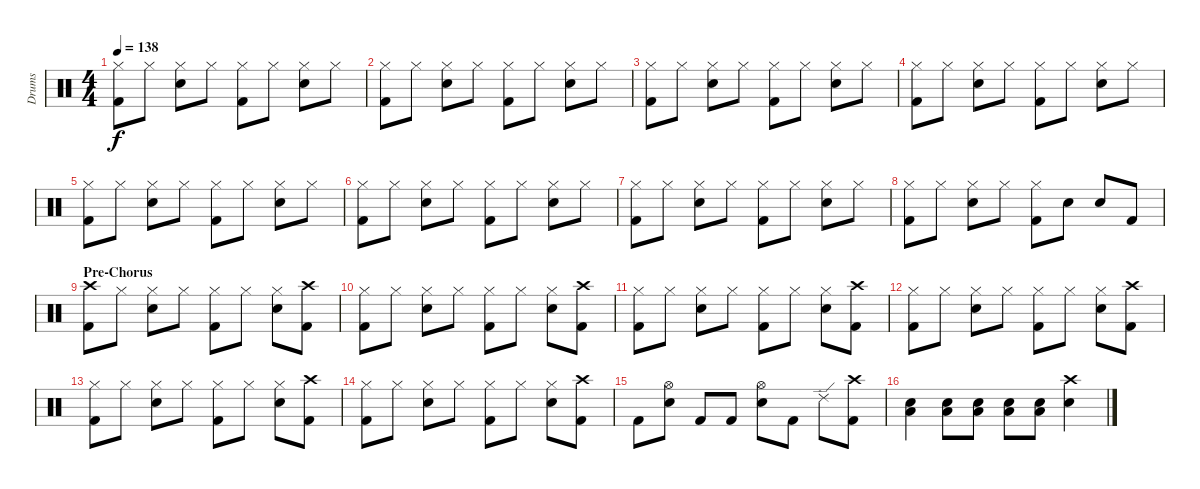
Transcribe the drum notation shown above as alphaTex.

\track ("Drums" "Drums") {instrument percussion}
\staff {score}
\articulation defaults
\ts (4 4)
\tempo 138
\clef neutral
\ks c
("Hi-Hat (closed)" "Kick (hit) 2").8{dy f} "Hi-Hat (closed)".8 ("Hi-Hat (closed)" "Snare (hit) 2").8 "Hi-Hat (closed)".8 ("Hi-Hat (closed)" "Kick (hit) 2").8 "Hi-Hat (closed)".8 ("Hi-Hat (closed)" "Snare (hit) 2").8 "Hi-Hat (closed)".8 |
("Hi-Hat (closed)" "Kick (hit) 2").8 "Hi-Hat (closed)".8 ("Hi-Hat (closed)" "Snare (hit) 2").8 "Hi-Hat (closed)".8 ("Hi-Hat (closed)" "Kick (hit) 2").8 "Hi-Hat (closed)".8 ("Hi-Hat (closed)" "Snare (hit) 2").8 "Hi-Hat (closed)".8 |
("Hi-Hat (closed)" "Kick (hit) 2").8 "Hi-Hat (closed)".8 ("Hi-Hat (closed)" "Snare (hit) 2").8 "Hi-Hat (closed)".8 ("Hi-Hat (closed)" "Kick (hit) 2").8 "Hi-Hat (closed)".8 ("Hi-Hat (closed)" "Snare (hit) 2").8 "Hi-Hat (closed)".8 |
("Hi-Hat (closed)" "Kick (hit) 2").8 "Hi-Hat (closed)".8 ("Hi-Hat (closed)" "Snare (hit) 2").8 "Hi-Hat (closed)".8 ("Hi-Hat (closed)" "Kick (hit) 2").8 "Hi-Hat (closed)".8 ("Hi-Hat (closed)" "Snare (hit) 2").8 "Hi-Hat (closed)".8 |
("Hi-Hat (closed)" "Kick (hit) 2").8 "Hi-Hat (closed)".8 ("Hi-Hat (closed)" "Snare (hit) 2").8 "Hi-Hat (closed)".8 ("Hi-Hat (closed)" "Kick (hit) 2").8 "Hi-Hat (closed)".8 ("Hi-Hat (closed)" "Snare (hit) 2").8 "Hi-Hat (closed)".8 |
("Hi-Hat (closed)" "Kick (hit) 2").8 "Hi-Hat (closed)".8 ("Hi-Hat (closed)" "Snare (hit) 2").8 "Hi-Hat (closed)".8 ("Hi-Hat (closed)" "Kick (hit) 2").8 "Hi-Hat (closed)".8 ("Hi-Hat (closed)" "Snare (hit) 2").8 "Hi-Hat (closed)".8 |
("Hi-Hat (closed)" "Kick (hit) 2").8 "Hi-Hat (closed)".8 ("Hi-Hat (closed)" "Snare (hit) 2").8 "Hi-Hat (closed)".8 ("Hi-Hat (closed)" "Kick (hit) 2").8 "Hi-Hat (closed)".8 ("Hi-Hat (closed)" "Snare (hit) 2").8 "Hi-Hat (closed)".8 |
("Hi-Hat (closed)" "Kick (hit) 2").8 "Hi-Hat (closed)".8 ("Hi-Hat (closed)" "Snare (hit) 2").8 "Hi-Hat (closed)".8 ("Hi-Hat (closed)" "Kick (hit) 2").8 "Snare (hit) 2".8 "Snare (hit) 2".8 "Kick (hit) 2".8 |
\section ("" "Pre-Chorus")
("Crash high (hit)" "Kick (hit) 2").8 "Hi-Hat (closed)".8 ("Hi-Hat (closed)" "Snare (hit) 2").8 "Hi-Hat (closed)".8 ("Hi-Hat (closed)" "Kick (hit) 2").8 "Hi-Hat (closed)".8 ("Hi-Hat (closed)" "Snare (hit) 2").8 ("Crash high (hit)" "Kick (hit) 2").8 |
("Hi-Hat (closed)" "Kick (hit) 2").8 "Hi-Hat (closed)".8 ("Hi-Hat (closed)" "Snare (hit) 2").8 "Hi-Hat (closed)".8 ("Hi-Hat (closed)" "Kick (hit) 2").8 "Hi-Hat (closed)".8 ("Hi-Hat (closed)" "Snare (hit) 2").8 ("Crash high (hit)" "Kick (hit) 2").8 |
("Hi-Hat (closed)" "Kick (hit) 2").8 "Hi-Hat (closed)".8 ("Hi-Hat (closed)" "Snare (hit) 2").8 "Hi-Hat (closed)".8 ("Hi-Hat (closed)" "Kick (hit) 2").8 "Hi-Hat (closed)".8 ("Hi-Hat (closed)" "Snare (hit) 2").8 ("Crash high (hit)" "Kick (hit) 2").8 |
("Hi-Hat (closed)" "Kick (hit) 2").8 "Hi-Hat (closed)".8 ("Hi-Hat (closed)" "Snare (hit) 2").8 "Hi-Hat (closed)".8 ("Hi-Hat (closed)" "Kick (hit) 2").8 "Hi-Hat (closed)".8 ("Hi-Hat (closed)" "Snare (hit) 2").8 ("Crash high (hit)" "Kick (hit) 2").8 |
("Hi-Hat (closed)" "Kick (hit) 2").8 "Hi-Hat (closed)".8 ("Hi-Hat (closed)" "Snare (hit) 2").8 "Hi-Hat (closed)".8 ("Hi-Hat (closed)" "Kick (hit) 2").8 "Hi-Hat (closed)".8 ("Hi-Hat (closed)" "Snare (hit) 2").8 ("Crash high (hit)" "Kick (hit) 2").8 |
("Hi-Hat (closed)" "Kick (hit) 2").8 "Hi-Hat (closed)".8 ("Hi-Hat (closed)" "Snare (hit) 2").8 "Hi-Hat (closed)".8 ("Hi-Hat (closed)" "Kick (hit) 2").8 "Hi-Hat (closed)".8 ("Hi-Hat (closed)" "Snare (hit) 2").8 ("Crash high (hit)" "Kick (hit) 2").8 |
"Kick (hit) 2".8 ("Hi-Hat (open)" "Snare (hit) 2").8 "Kick (hit) 2".8 "Kick (hit) 2".8 ("Hi-Hat (open)" "Snare (hit) 2").8 "Kick (hit) 2".8 "Ride (edge) 2".8 ("Crash high (hit)" "Kick (hit) 2").8 |
("Low Floor Tom (hit)" "Snare (hit) 2").4 ("Low Floor Tom (hit)" "Snare (hit) 2").8 ("Low Floor Tom (hit)" "Snare (hit) 2").8 ("Low Floor Tom (hit)" "Snare (hit) 2").8 ("Low Floor Tom (hit)" "Snare (hit) 2").8 ("Crash high (hit)" "Snare (hit) 2").4
